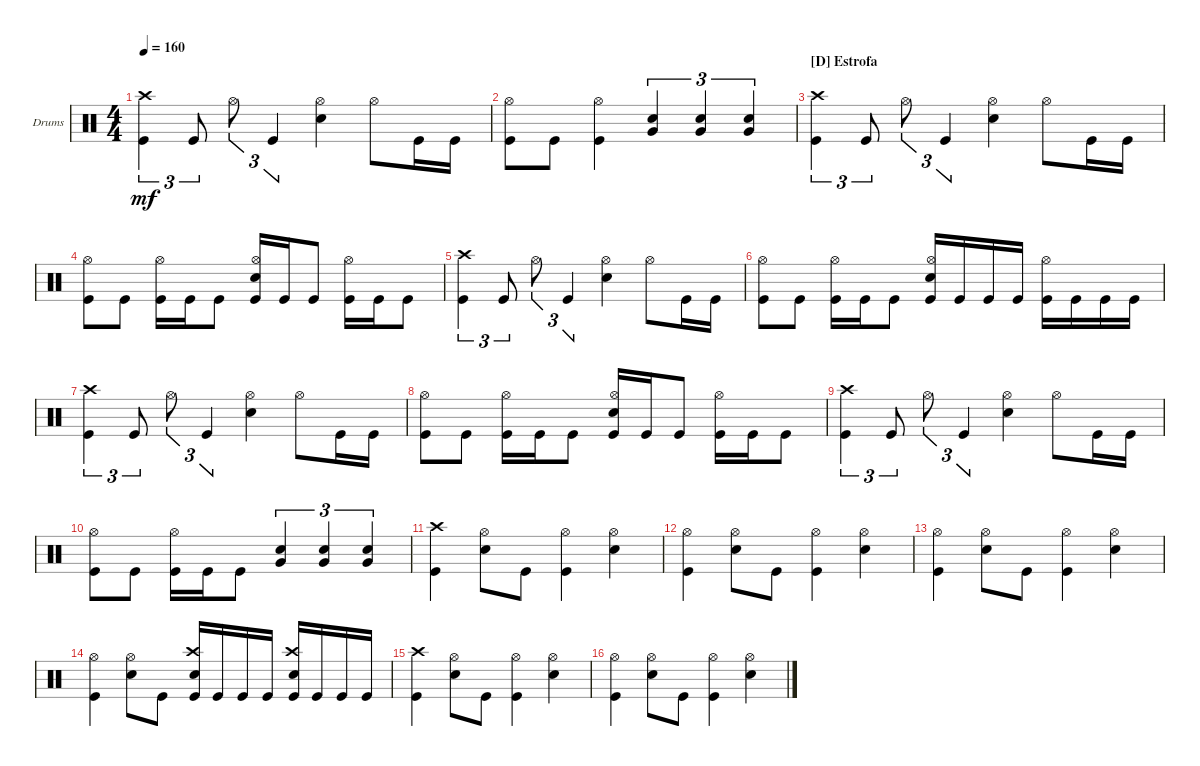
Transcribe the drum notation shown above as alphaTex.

\bracketExtendMode groupsimilarinstruments
\firstSystemTrackNameOrientation horizontal
\otherSystemsTrackNameOrientation horizontal
\track ("Nick Augusto" "Drums") {instrument percussion}
\staff {score}
\articulation defaults
\ts (4 4)
\tempo 160
\clef neutral
\ks c
("Kick (hit)" "Crash high (hit)").4{tu (3 2) dy mf} "Kick (hit)".8{tu (3 2)} "Hi-Hat (open)".8{tu (3 2)} "Kick (hit)".4{tu (3 2)} ("Snare (hit) 2" "Hi-Hat (open)").4 "Hi-Hat (open)".8 "Kick (hit)".16 "Kick (hit)".16 |
("Hi-Hat (open)" "Kick (hit)").8 "Kick (hit)".8 ("Kick (hit)" "Hi-Hat (open)").4 ("Snare (hit) 2" "Very Low Tom (hit)").4{tu (3 2)} ("Snare (hit) 2" "Very Low Tom (hit)").4{tu (3 2)} ("Snare (hit) 2" "Very Low Tom (hit)").4{tu (3 2)} |
\section ("D" "Estrofa")
("Kick (hit)" "Crash high (hit)").4{tu (3 2)} "Kick (hit)".8{tu (3 2)} "Hi-Hat (open)".8{tu (3 2)} "Kick (hit)".4{tu (3 2)} ("Snare (hit) 2" "Hi-Hat (open)").4 "Hi-Hat (open)".8 "Kick (hit)".16 "Kick (hit)".16 |
("Hi-Hat (open)" "Kick (hit)").8 "Kick (hit)".8 ("Kick (hit)" "Hi-Hat (open)").16 "Kick (hit)".16 "Kick (hit)".8 ("Kick (hit)" "Snare (hit) 2" "Hi-Hat (open)").16 "Kick (hit)".16 "Kick (hit)".8 ("Kick (hit)" "Hi-Hat (open)").16 "Kick (hit)".16 "Kick (hit)".8 |
("Kick (hit)" "Crash high (hit)").4{tu (3 2)} "Kick (hit)".8{tu (3 2)} "Hi-Hat (open)".8{tu (3 2)} "Kick (hit)".4{tu (3 2)} ("Snare (hit) 2" "Hi-Hat (open)").4 "Hi-Hat (open)".8 "Kick (hit)".16 "Kick (hit)".16 |
("Hi-Hat (open)" "Kick (hit)").8 "Kick (hit)".8 ("Kick (hit)" "Hi-Hat (open)").16 "Kick (hit)".16 "Kick (hit)".8 ("Kick (hit)" "Snare (hit) 2" "Hi-Hat (open)").16 "Kick (hit)".16 "Kick (hit)".16 "Kick (hit)".16 ("Kick (hit)" "Hi-Hat (open)").16 "Kick (hit)".16 "Kick (hit)".16 "Kick (hit)".16 |
("Kick (hit)" "Crash high (hit)").4{tu (3 2)} "Kick (hit)".8{tu (3 2)} "Hi-Hat (open)".8{tu (3 2)} "Kick (hit)".4{tu (3 2)} ("Snare (hit) 2" "Hi-Hat (open)").4 "Hi-Hat (open)".8 "Kick (hit)".16 "Kick (hit)".16 |
("Hi-Hat (open)" "Kick (hit)").8 "Kick (hit)".8 ("Kick (hit)" "Hi-Hat (open)").16 "Kick (hit)".16 "Kick (hit)".8 ("Kick (hit)" "Snare (hit) 2" "Hi-Hat (open)").16 "Kick (hit)".16 "Kick (hit)".8 ("Kick (hit)" "Hi-Hat (open)").16 "Kick (hit)".16 "Kick (hit)".8 |
("Kick (hit)" "Crash high (hit)").4{tu (3 2)} "Kick (hit)".8{tu (3 2)} "Hi-Hat (open)".8{tu (3 2)} "Kick (hit)".4{tu (3 2)} ("Snare (hit) 2" "Hi-Hat (open)").4 "Hi-Hat (open)".8 "Kick (hit)".16 "Kick (hit)".16 |
("Hi-Hat (open)" "Kick (hit)").8 "Kick (hit)".8 ("Kick (hit)" "Hi-Hat (open)").16 "Kick (hit)".16 "Kick (hit)".8 ("Snare (hit) 2" "Very Low Tom (hit)").4{tu (3 2)} ("Snare (hit) 2" "Very Low Tom (hit)").4{tu (3 2)} ("Snare (hit) 2" "Very Low Tom (hit)").4{tu (3 2)} |
("Kick (hit)" "Crash high (hit)").4 ("Snare (hit) 2" "Hi-Hat (open)").8 "Kick (hit)".8 ("Kick (hit)" "Hi-Hat (open)").4 ("Snare (hit) 2" "Hi-Hat (open)").4 |
("Kick (hit)" "Hi-Hat (open)").4 ("Snare (hit) 2" "Hi-Hat (open)").8 "Kick (hit)".8 ("Kick (hit)" "Hi-Hat (open)").4 ("Snare (hit) 2" "Hi-Hat (open)").4 |
("Kick (hit)" "Hi-Hat (open)").4 ("Snare (hit) 2" "Hi-Hat (open)").8 "Kick (hit)".8 ("Kick (hit)" "Hi-Hat (open)").4 ("Snare (hit) 2" "Hi-Hat (open)").4 |
("Kick (hit)" "Hi-Hat (open)").4 ("Snare (hit) 2" "Hi-Hat (open)").8 "Kick (hit)".8 ("Kick (hit)" "Crash high (hit)" "Snare (hit) 2").16 "Kick (hit)".16 "Kick (hit)".16 "Kick (hit)".16 ("Kick (hit)" "Crash high (hit)" "Snare (hit) 2").16 "Kick (hit)".16 "Kick (hit)".16 "Kick (hit)".16 |
("Kick (hit)" "Crash high (hit)").4 ("Snare (hit) 2" "Hi-Hat (open)").8 "Kick (hit)".8 ("Kick (hit)" "Hi-Hat (open)").4 ("Snare (hit) 2" "Hi-Hat (open)").4 |
("Kick (hit)" "Hi-Hat (open)").4 ("Snare (hit) 2" "Hi-Hat (open)").8 "Kick (hit)".8 ("Kick (hit)" "Hi-Hat (open)").4 ("Snare (hit) 2" "Hi-Hat (open)").4
